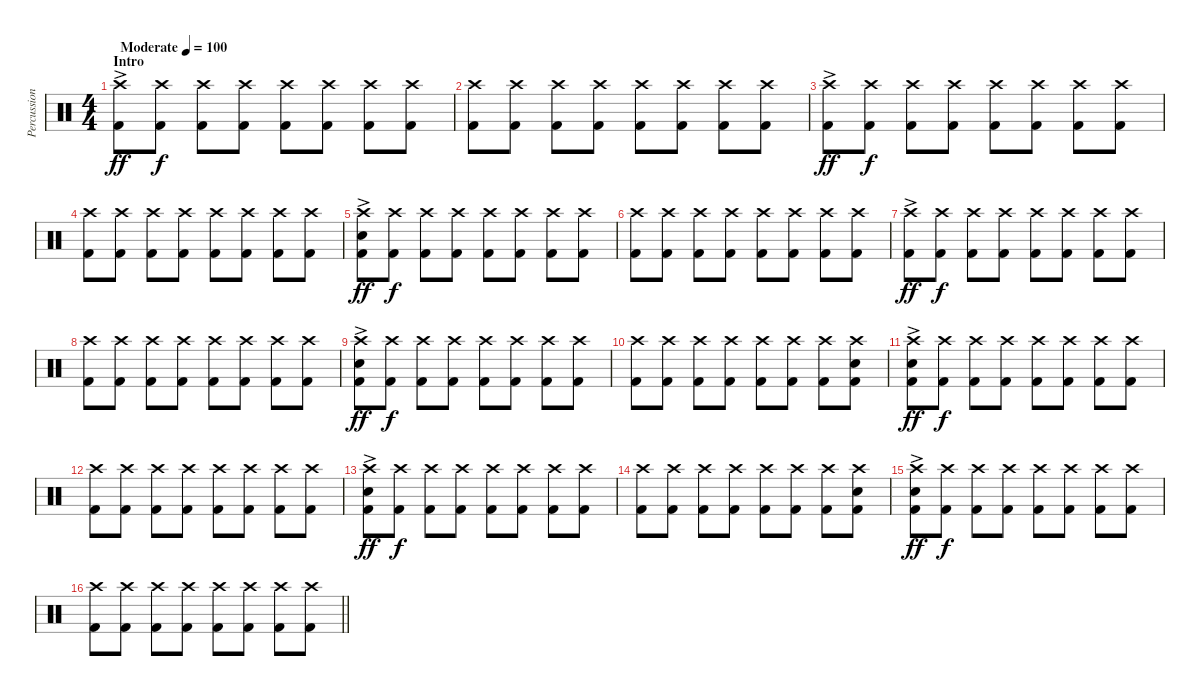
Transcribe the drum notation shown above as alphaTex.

\track ("Percussion" "Percussion") {instrument percussion}
\staff {score}
\articulation defaults
\ts (4 4)
\section ("" "Intro")
\tempo (100 "Moderate")
\clef neutral
\ks c
("Crash high (hit)"{ac} "Kick (hit) 2").8{dy ff} ("Crash high (hit)" "Kick (hit) 2").8{dy f} ("Crash high (hit)" "Kick (hit) 2").8 ("Crash high (hit)" "Kick (hit) 2").8 ("Crash high (hit)" "Kick (hit) 2").8 ("Crash high (hit)" "Kick (hit) 2").8 ("Crash high (hit)" "Kick (hit) 2").8 ("Crash high (hit)" "Kick (hit) 2").8 |
("Crash high (hit)" "Kick (hit) 2").8 ("Crash high (hit)" "Kick (hit) 2").8 ("Crash high (hit)" "Kick (hit) 2").8 ("Crash high (hit)" "Kick (hit) 2").8 ("Crash high (hit)" "Kick (hit) 2").8 ("Crash high (hit)" "Kick (hit) 2").8 ("Crash high (hit)" "Kick (hit) 2").8 ("Crash high (hit)" "Kick (hit) 2").8 |
("Crash high (hit)"{ac} "Kick (hit) 2").8{dy ff} ("Crash high (hit)" "Kick (hit) 2").8{dy f} ("Crash high (hit)" "Kick (hit) 2").8 ("Crash high (hit)" "Kick (hit) 2").8 ("Crash high (hit)" "Kick (hit) 2").8 ("Crash high (hit)" "Kick (hit) 2").8 ("Crash high (hit)" "Kick (hit) 2").8 ("Crash high (hit)" "Kick (hit) 2").8 |
("Crash high (hit)" "Kick (hit) 2").8 ("Crash high (hit)" "Kick (hit) 2").8 ("Crash high (hit)" "Kick (hit) 2").8 ("Crash high (hit)" "Kick (hit) 2").8 ("Crash high (hit)" "Kick (hit) 2").8 ("Crash high (hit)" "Kick (hit) 2").8 ("Crash high (hit)" "Kick (hit) 2").8 ("Crash high (hit)" "Kick (hit) 2").8 |
("Electric Snare (hit)" "Crash high (hit)"{ac} "Kick (hit) 2").8{dy ff} ("Crash high (hit)" "Kick (hit) 2").8{dy f} ("Crash high (hit)" "Kick (hit) 2").8 ("Crash high (hit)" "Kick (hit) 2").8 ("Crash high (hit)" "Kick (hit) 2").8 ("Crash high (hit)" "Kick (hit) 2").8 ("Crash high (hit)" "Kick (hit) 2").8 ("Crash high (hit)" "Kick (hit) 2").8 |
("Crash high (hit)" "Kick (hit) 2").8 ("Crash high (hit)" "Kick (hit) 2").8 ("Crash high (hit)" "Kick (hit) 2").8 ("Crash high (hit)" "Kick (hit) 2").8 ("Crash high (hit)" "Kick (hit) 2").8 ("Crash high (hit)" "Kick (hit) 2").8 ("Crash high (hit)" "Kick (hit) 2").8 ("Crash high (hit)" "Kick (hit) 2").8 |
("Crash high (hit)"{ac} "Kick (hit) 2").8{dy ff} ("Crash high (hit)" "Kick (hit) 2").8{dy f} ("Crash high (hit)" "Kick (hit) 2").8 ("Crash high (hit)" "Kick (hit) 2").8 ("Crash high (hit)" "Kick (hit) 2").8 ("Crash high (hit)" "Kick (hit) 2").8 ("Crash high (hit)" "Kick (hit) 2").8 ("Crash high (hit)" "Kick (hit) 2").8 |
("Crash high (hit)" "Kick (hit) 2").8 ("Crash high (hit)" "Kick (hit) 2").8 ("Crash high (hit)" "Kick (hit) 2").8 ("Crash high (hit)" "Kick (hit) 2").8 ("Crash high (hit)" "Kick (hit) 2").8 ("Crash high (hit)" "Kick (hit) 2").8 ("Crash high (hit)" "Kick (hit) 2").8 ("Crash high (hit)" "Kick (hit) 2").8 |
("Electric Snare (hit)" "Crash high (hit)"{ac} "Kick (hit) 2").8{dy ff} ("Crash high (hit)" "Kick (hit) 2").8{dy f} ("Crash high (hit)" "Kick (hit) 2").8 ("Crash high (hit)" "Kick (hit) 2").8 ("Crash high (hit)" "Kick (hit) 2").8 ("Crash high (hit)" "Kick (hit) 2").8 ("Crash high (hit)" "Kick (hit) 2").8 ("Crash high (hit)" "Kick (hit) 2").8 |
("Crash high (hit)" "Kick (hit) 2").8 ("Crash high (hit)" "Kick (hit) 2").8 ("Crash high (hit)" "Kick (hit) 2").8 ("Crash high (hit)" "Kick (hit) 2").8 ("Crash high (hit)" "Kick (hit) 2").8 ("Crash high (hit)" "Kick (hit) 2").8 ("Crash high (hit)" "Kick (hit) 2").8 ("Electric Snare (hit)" "Crash high (hit)" "Kick (hit) 2").8 |
("Electric Snare (hit)" "Crash high (hit)"{ac} "Kick (hit) 2").8{dy ff} ("Crash high (hit)" "Kick (hit) 2").8{dy f} ("Crash high (hit)" "Kick (hit) 2").8 ("Crash high (hit)" "Kick (hit) 2").8 ("Crash high (hit)" "Kick (hit) 2").8 ("Crash high (hit)" "Kick (hit) 2").8 ("Crash high (hit)" "Kick (hit) 2").8 ("Crash high (hit)" "Kick (hit) 2").8 |
("Crash high (hit)" "Kick (hit) 2").8 ("Crash high (hit)" "Kick (hit) 2").8 ("Crash high (hit)" "Kick (hit) 2").8 ("Crash high (hit)" "Kick (hit) 2").8 ("Crash high (hit)" "Kick (hit) 2").8 ("Crash high (hit)" "Kick (hit) 2").8 ("Crash high (hit)" "Kick (hit) 2").8 ("Crash high (hit)" "Kick (hit) 2").8 |
("Electric Snare (hit)" "Crash high (hit)"{ac} "Kick (hit) 2").8{dy ff} ("Crash high (hit)" "Kick (hit) 2").8{dy f} ("Crash high (hit)" "Kick (hit) 2").8 ("Crash high (hit)" "Kick (hit) 2").8 ("Crash high (hit)" "Kick (hit) 2").8 ("Crash high (hit)" "Kick (hit) 2").8 ("Crash high (hit)" "Kick (hit) 2").8 ("Crash high (hit)" "Kick (hit) 2").8 |
("Crash high (hit)" "Kick (hit) 2").8 ("Crash high (hit)" "Kick (hit) 2").8 ("Crash high (hit)" "Kick (hit) 2").8 ("Crash high (hit)" "Kick (hit) 2").8 ("Crash high (hit)" "Kick (hit) 2").8 ("Crash high (hit)" "Kick (hit) 2").8 ("Crash high (hit)" "Kick (hit) 2").8 ("Electric Snare (hit)" "Crash high (hit)" "Kick (hit) 2").8 |
("Electric Snare (hit)" "Crash high (hit)"{ac} "Kick (hit) 2").8{dy ff} ("Crash high (hit)" "Kick (hit) 2").8{dy f} ("Crash high (hit)" "Kick (hit) 2").8 ("Crash high (hit)" "Kick (hit) 2").8 ("Crash high (hit)" "Kick (hit) 2").8 ("Crash high (hit)" "Kick (hit) 2").8 ("Crash high (hit)" "Kick (hit) 2").8 ("Crash high (hit)" "Kick (hit) 2").8 |
\barLineRight lightlight
("Crash high (hit)" "Kick (hit) 2").8 ("Crash high (hit)" "Kick (hit) 2").8 ("Crash high (hit)" "Kick (hit) 2").8 ("Crash high (hit)" "Kick (hit) 2").8 ("Crash high (hit)" "Kick (hit) 2").8 ("Crash high (hit)" "Kick (hit) 2").8 ("Crash high (hit)" "Kick (hit) 2").8 ("Crash high (hit)" "Kick (hit) 2").8
